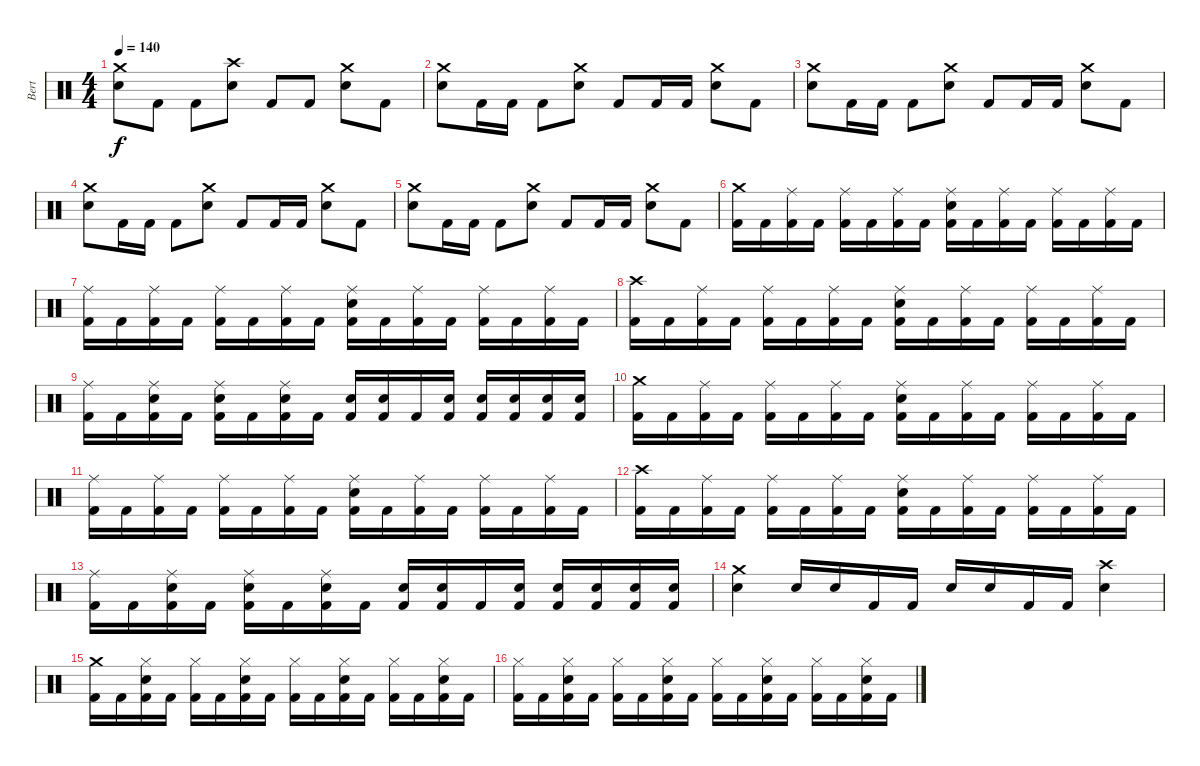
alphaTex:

\track ("Bert" "Bert") {instrument percussion}
\staff {score}
\articulation defaults
\ts (4 4)
\tempo 140
\clef neutral
\ks c
("Crash medium (hit)" "Snare (hit) 2").8{dy f} "Kick (hit) 2".8 "Kick (hit) 2".8 ("Crash high (hit)" "Snare (hit) 2").8 "Kick (hit) 2".8 "Kick (hit) 2".8 ("Crash medium (hit)" "Snare (hit) 2").8 "Kick (hit) 2".8 |
("Crash medium (hit)" "Snare (hit) 2").8 "Kick (hit) 2".16 "Kick (hit) 2".16 "Kick (hit) 2".8 ("Crash medium (hit)" "Snare (hit) 2").8 "Kick (hit) 2".8 "Kick (hit) 2".16 "Kick (hit) 2".16 ("Crash medium (hit)" "Snare (hit) 2").8 "Kick (hit) 2".8 |
("Crash medium (hit)" "Snare (hit) 2").8 "Kick (hit) 2".16 "Kick (hit) 2".16 "Kick (hit) 2".8 ("Crash medium (hit)" "Snare (hit) 2").8 "Kick (hit) 2".8 "Kick (hit) 2".16 "Kick (hit) 2".16 ("Crash medium (hit)" "Snare (hit) 2").8 "Kick (hit) 2".8 |
("Crash medium (hit)" "Snare (hit) 2").8 "Kick (hit) 2".16 "Kick (hit) 2".16 "Kick (hit) 2".8 ("Crash medium (hit)" "Snare (hit) 2").8 "Kick (hit) 2".8 "Kick (hit) 2".16 "Kick (hit) 2".16 ("Crash medium (hit)" "Snare (hit) 2").8 "Kick (hit) 2".8 |
("Crash medium (hit)" "Snare (hit) 2").8 "Kick (hit) 2".16 "Kick (hit) 2".16 "Kick (hit) 2".8 ("Crash medium (hit)" "Snare (hit) 2").8 "Kick (hit) 2".8 "Kick (hit) 2".16 "Kick (hit) 2".16 ("Crash medium (hit)" "Snare (hit) 2").8 "Kick (hit) 2".8 |
("Crash medium (hit)" "Kick (hit) 2").16 "Kick (hit) 2".16 ("Ride (middle)" "Kick (hit) 2").16 "Kick (hit) 2".16 ("Ride (middle)" "Kick (hit) 2").16 "Kick (hit) 2".16 ("Ride (middle)" "Kick (hit) 2").16 "Kick (hit) 2".16 ("Ride (middle)" "Snare (hit) 2" "Kick (hit) 2").16 "Kick (hit) 2".16 ("Ride (middle)" "Kick (hit) 2").16 "Kick (hit) 2".16 ("Ride (middle)" "Kick (hit) 2").16 "Kick (hit) 2".16 ("Ride (middle)" "Kick (hit) 2").16 "Kick (hit) 2".16 |
("Ride (middle)" "Kick (hit) 2").16 "Kick (hit) 2".16 ("Ride (middle)" "Kick (hit) 2").16 "Kick (hit) 2".16 ("Ride (middle)" "Kick (hit) 2").16 "Kick (hit) 2".16 ("Ride (middle)" "Kick (hit) 2").16 "Kick (hit) 2".16 ("Ride (middle)" "Snare (hit) 2" "Kick (hit) 2").16 "Kick (hit) 2".16 ("Ride (middle)" "Kick (hit) 2").16 "Kick (hit) 2".16 ("Ride (middle)" "Kick (hit) 2").16 "Kick (hit) 2".16 ("Ride (middle)" "Kick (hit) 2").16 "Kick (hit) 2".16 |
("Crash high (hit)" "Kick (hit) 2").16 "Kick (hit) 2".16 ("Ride (middle)" "Kick (hit) 2").16 "Kick (hit) 2".16 ("Ride (middle)" "Kick (hit) 2").16 "Kick (hit) 2".16 ("Ride (middle)" "Kick (hit) 2").16 "Kick (hit) 2".16 ("Ride (middle)" "Snare (hit) 2" "Kick (hit) 2").16 "Kick (hit) 2".16 ("Ride (middle)" "Kick (hit) 2").16 "Kick (hit) 2".16 ("Ride (middle)" "Kick (hit) 2").16 "Kick (hit) 2".16 ("Ride (middle)" "Kick (hit) 2").16 "Kick (hit) 2".16 |
("Ride (middle)" "Kick (hit) 2").16 "Kick (hit) 2".16 ("Ride (middle)" "Snare (hit) 2" "Kick (hit) 2").16 "Kick (hit) 2".16 ("Ride (middle)" "Snare (hit) 2" "Kick (hit) 2").16 "Kick (hit) 2".16 ("Ride (middle)" "Snare (hit) 2" "Kick (hit) 2").16 "Kick (hit) 2".16 ("Snare (hit) 2" "Kick (hit) 2").16 ("Snare (hit) 2" "Kick (hit) 2").16 "Kick (hit) 2".16 ("Snare (hit) 2" "Kick (hit) 2").16 ("Snare (hit) 2" "Kick (hit) 2").16 ("Snare (hit) 2" "Kick (hit) 2").16 ("Snare (hit) 2" "Kick (hit) 2").16 ("Snare (hit) 2" "Kick (hit) 2").16 |
("Crash medium (hit)" "Kick (hit) 2").16 "Kick (hit) 2".16 ("Ride (middle)" "Kick (hit) 2").16 "Kick (hit) 2".16 ("Ride (middle)" "Kick (hit) 2").16 "Kick (hit) 2".16 ("Ride (middle)" "Kick (hit) 2").16 "Kick (hit) 2".16 ("Ride (middle)" "Snare (hit) 2" "Kick (hit) 2").16 "Kick (hit) 2".16 ("Ride (middle)" "Kick (hit) 2").16 "Kick (hit) 2".16 ("Ride (middle)" "Kick (hit) 2").16 "Kick (hit) 2".16 ("Ride (middle)" "Kick (hit) 2").16 "Kick (hit) 2".16 |
("Ride (middle)" "Kick (hit) 2").16 "Kick (hit) 2".16 ("Ride (middle)" "Kick (hit) 2").16 "Kick (hit) 2".16 ("Ride (middle)" "Kick (hit) 2").16 "Kick (hit) 2".16 ("Ride (middle)" "Kick (hit) 2").16 "Kick (hit) 2".16 ("Ride (middle)" "Snare (hit) 2" "Kick (hit) 2").16 "Kick (hit) 2".16 ("Ride (middle)" "Kick (hit) 2").16 "Kick (hit) 2".16 ("Ride (middle)" "Kick (hit) 2").16 "Kick (hit) 2".16 ("Ride (middle)" "Kick (hit) 2").16 "Kick (hit) 2".16 |
("Crash high (hit)" "Kick (hit) 2").16 "Kick (hit) 2".16 ("Ride (middle)" "Kick (hit) 2").16 "Kick (hit) 2".16 ("Ride (middle)" "Kick (hit) 2").16 "Kick (hit) 2".16 ("Ride (middle)" "Kick (hit) 2").16 "Kick (hit) 2".16 ("Ride (middle)" "Snare (hit) 2" "Kick (hit) 2").16 "Kick (hit) 2".16 ("Ride (middle)" "Kick (hit) 2").16 "Kick (hit) 2".16 ("Ride (middle)" "Kick (hit) 2").16 "Kick (hit) 2".16 ("Ride (middle)" "Kick (hit) 2").16 "Kick (hit) 2".16 |
("Ride (middle)" "Kick (hit) 2").16 "Kick (hit) 2".16 ("Ride (middle)" "Snare (hit) 2" "Kick (hit) 2").16 "Kick (hit) 2".16 ("Ride (middle)" "Snare (hit) 2" "Kick (hit) 2").16 "Kick (hit) 2".16 ("Ride (middle)" "Snare (hit) 2" "Kick (hit) 2").16 "Kick (hit) 2".16 ("Snare (hit) 2" "Kick (hit) 2").16 ("Snare (hit) 2" "Kick (hit) 2").16 "Kick (hit) 2".16 ("Snare (hit) 2" "Kick (hit) 2").16 ("Snare (hit) 2" "Kick (hit) 2").16 ("Snare (hit) 2" "Kick (hit) 2").16 ("Snare (hit) 2" "Kick (hit) 2").16 ("Snare (hit) 2" "Kick (hit) 2").16 |
("Crash medium (hit)" "Snare (hit) 2").4 "Snare (hit) 2".16 "Snare (hit) 2".16 "Kick (hit) 2".16 "Kick (hit) 2".16 "Snare (hit) 2".16 "Snare (hit) 2".16 "Kick (hit) 2".16 "Kick (hit) 2".16 ("Crash high (hit)" "Snare (hit) 2").4 |
("Crash medium (hit)" "Kick (hit) 2").16 "Kick (hit) 2".16 ("Hi-Hat (closed)" "Snare (hit) 2" "Kick (hit) 2").16 "Kick (hit) 2".16 ("Hi-Hat (closed)" "Kick (hit) 2").16 "Kick (hit) 2".16 ("Hi-Hat (closed)" "Snare (hit) 2" "Kick (hit) 2").16 "Kick (hit) 2".16 ("Hi-Hat (closed)" "Kick (hit) 2").16 "Kick (hit) 2".16 ("Hi-Hat (closed)" "Snare (hit) 2" "Kick (hit) 2").16 "Kick (hit) 2".16 ("Hi-Hat (closed)" "Kick (hit) 2").16 "Kick (hit) 2".16 ("Hi-Hat (closed)" "Snare (hit) 2" "Kick (hit) 2").16 "Kick (hit) 2".16 |
("Hi-Hat (closed)" "Kick (hit) 2").16 "Kick (hit) 2".16 ("Hi-Hat (closed)" "Snare (hit) 2" "Kick (hit) 2").16 "Kick (hit) 2".16 ("Hi-Hat (closed)" "Kick (hit) 2").16 "Kick (hit) 2".16 ("Hi-Hat (closed)" "Snare (hit) 2" "Kick (hit) 2").16 "Kick (hit) 2".16 ("Hi-Hat (closed)" "Kick (hit) 2").16 "Kick (hit) 2".16 ("Hi-Hat (closed)" "Snare (hit) 2" "Kick (hit) 2").16 "Kick (hit) 2".16 ("Hi-Hat (closed)" "Kick (hit) 2").16 "Kick (hit) 2".16 ("Hi-Hat (closed)" "Snare (hit) 2" "Kick (hit) 2").16 "Kick (hit) 2".16
